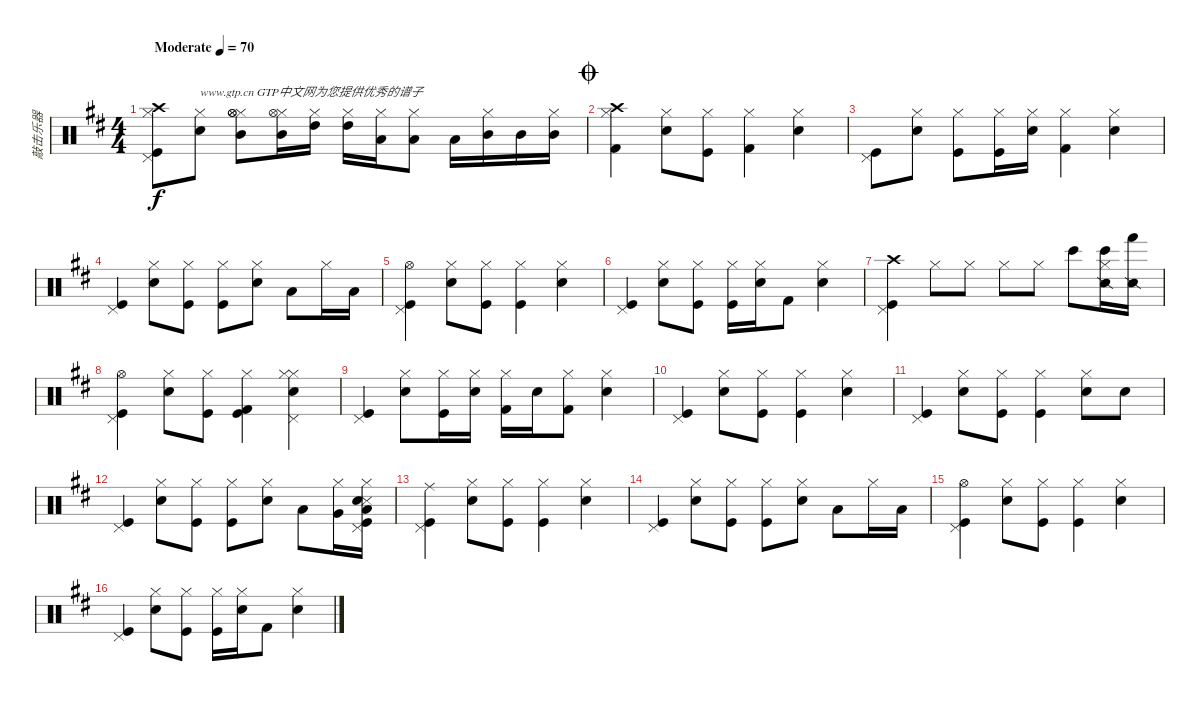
\track ("敲击乐器" "敲击乐器") {instrument percussion}
\staff {score}
\articulation defaults
\ts (4 4)
\tempo (70 "Moderate")
\clef neutral
\ks d
("Hi-Hat (closed)" "Crash high (hit)" "Kick (hit)" "Pedal Hi-Hat (hit)").8{dy f} ("Snare (hit) 2" "Hi-Hat (closed)").8{txt "www.gtp.cn GTP中文网为您提供优秀的谱子"} ("Hi-Hat (closed)" "Mid Tom (hit)" "Hi-Hat (open)" "Hi-Hat (open)").8 ("Hi-Hat (closed)" "Hi-Hat (open)" "Mid Tom (hit)").16 ("High Tom (hit)" "Hi-Hat (closed)").16 ("High Tom (hit)" "Hi-Hat (closed)").16 ("Low Tom (hit)" "Hi-Hat (closed)").16 ("Hi-Hat (closed)" "Low Tom (hit)").8 "Low Tom (hit)".16 ("Hi-Hat (closed)" "Mid Tom (hit)").16 "Mid Tom (hit)".16 ("Mid Tom (hit)" "Hi-Hat (closed)").16 |
\jump coda
("Hi-Hat (closed)" "Crash high (hit)" "Kick (hit) 2").4 ("Snare (hit) 2" "Hi-Hat (closed)").8 ("Kick (hit)" "Hi-Hat (closed)").8 ("Hi-Hat (closed)" "Kick (hit) 2").4 ("Snare (hit) 2" "Hi-Hat (closed)").4 |
("Kick (hit)" "Pedal Hi-Hat (hit)").8 ("Snare (hit) 2" "Hi-Hat (closed)").8 ("Kick (hit)" "Hi-Hat (closed)").8 ("Kick (hit)" "Hi-Hat (closed)").16 ("Snare (hit) 2" "Hi-Hat (closed)").16 ("Kick (hit) 2" "Hi-Hat (closed)").4 ("Snare (hit) 2" "Hi-Hat (closed)").4 |
("Kick (hit)" "Pedal Hi-Hat (hit)").4 ("Snare (hit) 2" "Hi-Hat (closed)").8 ("Kick (hit)" "Hi-Hat (closed)").8 ("Kick (hit)" "Hi-Hat (closed)").8 ("Hi-Hat (closed)" "Electric Snare (hit)").8 "Low Floor Tom (hit)".8 "Hi-Hat (closed)".16 "Low Tom (hit)".16 |
("Kick (hit)" "Pedal Hi-Hat (hit)" "Hi-Hat (open)").4 ("Snare (hit) 2" "Hi-Hat (closed)").8 ("Kick (hit)" "Hi-Hat (closed)").8 ("Kick (hit)" "Hi-Hat (closed)").4 ("Snare (hit) 2" "Hi-Hat (closed)").4 |
("Kick (hit)" "Pedal Hi-Hat (hit)").4 ("Snare (hit) 2" "Hi-Hat (closed)").8 ("Kick (hit)" "Hi-Hat (closed)").8 ("Kick (hit)" "Hi-Hat (closed)").16 ("Snare (hit) 2" "Hi-Hat (closed)").16 "Kick (hit) 2".8 ("Snare (hit) 2" "Hi-Hat (closed)").4 |
("Kick (hit)" "Pedal Hi-Hat (hit)" "Crash high (hit)").4 "Hi-Hat (closed)".8 "Hi-Hat (closed)".8 "Hi-Hat (closed)".8 "Hi-Hat (closed)".8 "Bongo High (hit)".8 ("Hi-Hat (closed)" "Snare (side stick) 2" "Bongo High (hit)").16 ("Snare (side stick) 2" "Hand (hit)").16 |
("Kick (hit)" "Pedal Hi-Hat (hit)" "Hi-Hat (open)").4 ("Snare (hit) 2" "Hi-Hat (closed)").8 ("Kick (hit)" "Hi-Hat (closed)").8 ("Kick (hit)" "Hi-Hat (closed)" "Kick (hit) 2").4 ("Snare (hit) 2" "Hi-Hat (closed)" "Pedal Hi-Hat (hit)" "Hi-Hat (closed)").4 |
("Kick (hit)" "Pedal Hi-Hat (hit)").4 ("Snare (hit) 2" "Hi-Hat (closed)").8 ("Kick (hit)" "Hi-Hat (closed)").16 ("Hi-Hat (closed)" "Snare (hit) 2").16 ("Hi-Hat (closed)" "Kick (hit) 2").16 "Snare (hit) 2".16 ("Hi-Hat (closed)" "Kick (hit) 2").8 ("Snare (hit) 2" "Hi-Hat (closed)").4 |
("Kick (hit)" "Pedal Hi-Hat (hit)").4 ("Snare (hit) 2" "Hi-Hat (closed)").8 ("Kick (hit)" "Hi-Hat (closed)").8 ("Kick (hit)" "Hi-Hat (closed)").4 ("Snare (hit) 2" "Hi-Hat (closed)").4 |
("Kick (hit)" "Pedal Hi-Hat (hit)").4 ("Snare (hit) 2" "Hi-Hat (closed)").8 ("Kick (hit)" "Hi-Hat (closed)").8 ("Kick (hit)" "Hi-Hat (closed)").4 ("Snare (hit) 2" "Hi-Hat (closed)").8 "Snare (hit) 2".8 |
("Kick (hit)" "Pedal Hi-Hat (hit)").4 ("Snare (hit) 2" "Hi-Hat (closed)").8 ("Kick (hit)" "Hi-Hat (closed)").8 ("Kick (hit)" "Hi-Hat (closed)").8 ("Hi-Hat (closed)" "Electric Snare (hit)").8 "Low Floor Tom (hit)".8 ("Hi-Hat (closed)" "Very Low Tom (hit)").16 ("Low Tom (hit)" "Snare (side stick) 3" "Kick (hit)" "Pedal Hi-Hat (hit)" "Snare (hit) 2" "Hi-Hat (closed)").16 |
("Kick (hit)" "Pedal Hi-Hat (hit)" "Ride (middle)").4 ("Snare (hit) 2" "Hi-Hat (closed)").8 ("Kick (hit)" "Hi-Hat (closed)").8 ("Kick (hit)" "Hi-Hat (closed)").4 ("Snare (hit) 2" "Hi-Hat (closed)").4 |
("Kick (hit)" "Pedal Hi-Hat (hit)").4 ("Snare (hit) 2" "Hi-Hat (closed)").8 ("Kick (hit)" "Hi-Hat (closed)").8 ("Kick (hit)" "Hi-Hat (closed)").8 ("Hi-Hat (closed)" "Electric Snare (hit)").8 "Low Floor Tom (hit)".8 "Hi-Hat (closed)".16 "Low Tom (hit)".16 |
("Kick (hit)" "Pedal Hi-Hat (hit)" "Hi-Hat (open)").4 ("Snare (hit) 2" "Hi-Hat (closed)").8 ("Kick (hit)" "Hi-Hat (closed)").8 ("Kick (hit)" "Hi-Hat (closed)").4 ("Snare (hit) 2" "Hi-Hat (closed)").4 |
("Kick (hit)" "Pedal Hi-Hat (hit)").4 ("Snare (hit) 2" "Hi-Hat (closed)").8 ("Kick (hit)" "Hi-Hat (closed)").8 ("Kick (hit)" "Hi-Hat (closed)").16 ("Snare (hit) 2" "Hi-Hat (closed)").16 "Kick (hit) 2".8 ("Snare (hit) 2" "Hi-Hat (closed)").4
